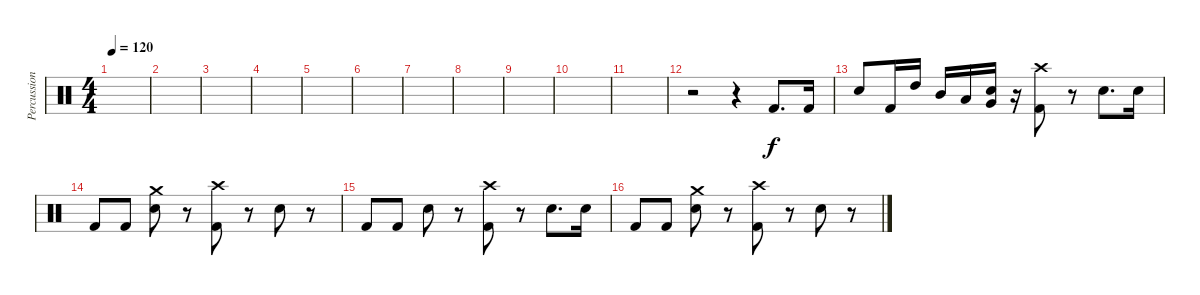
\track ("Percussions" "Percussion") {instrument percussion}
\staff {score}
\articulation defaults
\ts (4 4)
\tempo 120
\clef neutral
\ks c
|
|
|
|
|
|
|
|
|
|
|
r.2 r.4 "Kick (hit) 2".8{d} "Kick (hit) 2".16 |
"Electric Snare (hit)".8 "Kick (hit) 2".16 "High Tom (hit)".16 "Mid Tom (hit)".16 "Low Tom (hit)".16 ("Very Low Tom (hit)" "Electric Snare (hit)").16 r.16 ("Crash high (hit)" "Kick (hit) 2").8 r.8 "Electric Snare (hit)".8{d} "Electric Snare (hit)".16 |
"Kick (hit) 2".8 "Kick (hit) 2".8 ("Crash medium (hit)" "Electric Snare (hit)").8 r.8 ("Crash high (hit)" "Kick (hit) 2").8 r.8 "Electric Snare (hit)".8 r.8 |
"Kick (hit) 2".8 "Kick (hit) 2".8 "Electric Snare (hit)".8 r.8 ("Crash high (hit)" "Kick (hit) 2").8 r.8 "Electric Snare (hit)".8{d} "Electric Snare (hit)".16 |
"Kick (hit) 2".8 "Kick (hit) 2".8 ("Crash medium (hit)" "Electric Snare (hit)").8 r.8 ("Crash high (hit)" "Kick (hit) 2").8 r.8 "Electric Snare (hit)".8 r.8
